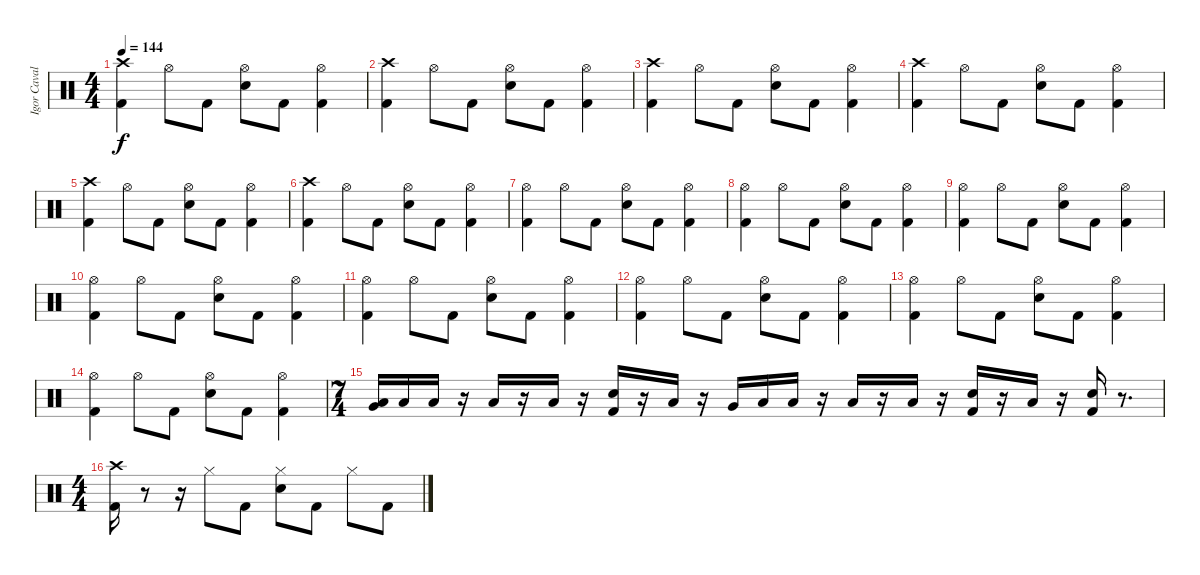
\track ("Igor Cavalera" "Igor Caval") {instrument percussion}
\staff {score}
\articulation defaults
\ts (4 4)
\tempo 144
\clef neutral
\ks c
("Crash high (hit)" "Kick (hit) 2").4{dy f} "Hi-Hat (open)".8 "Kick (hit) 2".8 ("Snare (hit) 2" "Hi-Hat (open)").8 "Kick (hit) 2".8 ("Hi-Hat (open)" "Kick (hit) 2").4 |
("Crash high (hit)" "Kick (hit) 2").4 "Hi-Hat (open)".8 "Kick (hit) 2".8 ("Snare (hit) 2" "Hi-Hat (open)").8 "Kick (hit) 2".8 ("Hi-Hat (open)" "Kick (hit) 2").4 |
("Crash high (hit)" "Kick (hit) 2").4 "Hi-Hat (open)".8 "Kick (hit) 2".8 ("Snare (hit) 2" "Hi-Hat (open)").8 "Kick (hit) 2".8 ("Hi-Hat (open)" "Kick (hit) 2").4 |
("Crash high (hit)" "Kick (hit) 2").4 "Hi-Hat (open)".8 "Kick (hit) 2".8 ("Snare (hit) 2" "Hi-Hat (open)").8 "Kick (hit) 2".8 ("Hi-Hat (open)" "Kick (hit) 2").4 |
("Crash high (hit)" "Kick (hit) 2").4 "Hi-Hat (open)".8 "Kick (hit) 2".8 ("Snare (hit) 2" "Hi-Hat (open)").8 "Kick (hit) 2".8 ("Hi-Hat (open)" "Kick (hit) 2").4 |
("Crash high (hit)" "Kick (hit) 2").4 "Hi-Hat (open)".8 "Kick (hit) 2".8 ("Snare (hit) 2" "Hi-Hat (open)").8 "Kick (hit) 2".8 ("Hi-Hat (open)" "Kick (hit) 2").4 |
("Hi-Hat (open)" "Kick (hit) 2").4 "Hi-Hat (open)".8 "Kick (hit) 2".8 ("Snare (hit) 2" "Hi-Hat (open)").8 "Kick (hit) 2".8 ("Hi-Hat (open)" "Kick (hit) 2").4 |
("Hi-Hat (open)" "Kick (hit) 2").4 "Hi-Hat (open)".8 "Kick (hit) 2".8 ("Snare (hit) 2" "Hi-Hat (open)").8 "Kick (hit) 2".8 ("Hi-Hat (open)" "Kick (hit) 2").4 |
("Hi-Hat (open)" "Kick (hit) 2").4 "Hi-Hat (open)".8 "Kick (hit) 2".8 ("Snare (hit) 2" "Hi-Hat (open)").8 "Kick (hit) 2".8 ("Hi-Hat (open)" "Kick (hit) 2").4 |
("Hi-Hat (open)" "Kick (hit) 2").4 "Hi-Hat (open)".8 "Kick (hit) 2".8 ("Snare (hit) 2" "Hi-Hat (open)").8 "Kick (hit) 2".8 ("Hi-Hat (open)" "Kick (hit) 2").4 |
("Hi-Hat (open)" "Kick (hit) 2").4 "Hi-Hat (open)".8 "Kick (hit) 2".8 ("Snare (hit) 2" "Hi-Hat (open)").8 "Kick (hit) 2".8 ("Hi-Hat (open)" "Kick (hit) 2").4 |
("Hi-Hat (open)" "Kick (hit) 2").4 "Hi-Hat (open)".8 "Kick (hit) 2".8 ("Snare (hit) 2" "Hi-Hat (open)").8 "Kick (hit) 2".8 ("Hi-Hat (open)" "Kick (hit) 2").4 |
("Hi-Hat (open)" "Kick (hit) 2").4 "Hi-Hat (open)".8 "Kick (hit) 2".8 ("Snare (hit) 2" "Hi-Hat (open)").8 "Kick (hit) 2".8 ("Hi-Hat (open)" "Kick (hit) 2").4 |
("Hi-Hat (open)" "Kick (hit) 2").4 "Hi-Hat (open)".8 "Kick (hit) 2".8 ("Snare (hit) 2" "Hi-Hat (open)").8 "Kick (hit) 2".8 ("Hi-Hat (open)" "Kick (hit) 2").4 |
\ts (7 4)
("Very Low Tom (hit)" "Low Floor Tom (hit)").16 "Low Tom (hit)".16 "Low Floor Tom (hit)".16 r.16 "Low Floor Tom (hit)".16 r.16 "Low Floor Tom (hit)".16 r.16 ("Kick (hit) 2" "Snare (hit) 2").16 r.16 "Low Floor Tom (hit)".16 r.16 "Very Low Tom (hit)".16 "Low Tom (hit)".16 "Low Floor Tom (hit)".16 r.16 "Low Floor Tom (hit)".16 r.16 "Low Floor Tom (hit)".16 r.16 ("Kick (hit) 2" "Snare (hit) 2").16 r.16 "Low Floor Tom (hit)".16 r.16 ("Kick (hit) 2" "Snare (hit) 2").16 r.8{d} |
\ts (4 4)
("Kick (hit) 2" "Crash high (hit)").16 r.8 r.16 "Hi-Hat (closed)".8 "Kick (hit) 2".8 ("Snare (hit) 2" "Hi-Hat (closed)").8 "Kick (hit) 2".8 "Hi-Hat (closed)".8 "Kick (hit) 2".8
